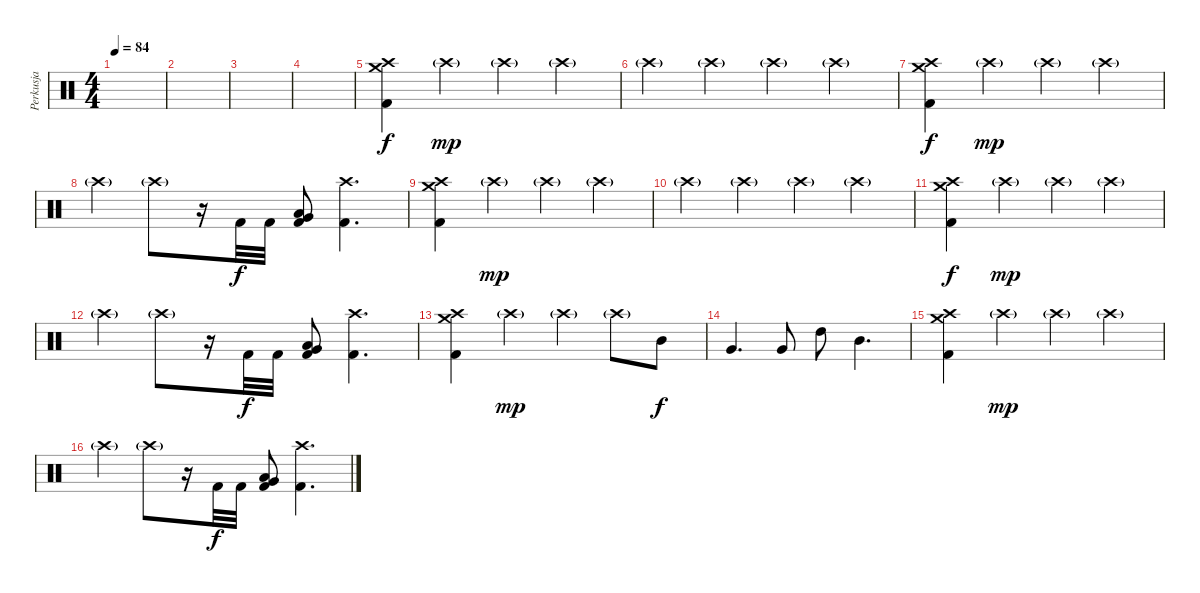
\track ("Perkusja" "Perkusja") {instrument percussion}
\staff {score}
\articulation defaults
\ts (4 4)
\tempo 84
\clef neutral
\ks c
|
|
|
|
("Kick (hit) 2" "Crash medium (hit)" "Crash high (hit)").4 "Crash high (hit)"{g}.4{dy mp} "Crash high (hit)"{g}.4 "Crash high (hit)"{g}.4 |
"Crash high (hit)"{g}.4 "Crash high (hit)"{g}.4 "Crash high (hit)"{g}.4 "Crash high (hit)"{g}.4 |
("Kick (hit) 2" "Crash medium (hit)" "Crash high (hit)").4{dy f} "Crash high (hit)"{g}.4{dy mp} "Crash high (hit)"{g}.4 "Crash high (hit)"{g}.4 |
"Crash high (hit)"{g}.4 "Crash high (hit)"{g}.8 r.16 "Kick (hit) 2".32{dy f} "Kick (hit) 2".32 ("Kick (hit) 2" "Very Low Tom (hit)" "Low Tom (hit)").8 ("Kick (hit) 2" "Crash high (hit)").4{d} |
("Kick (hit) 2" "Crash medium (hit)" "Crash high (hit)").4 "Crash high (hit)"{g}.4{dy mp} "Crash high (hit)"{g}.4 "Crash high (hit)"{g}.4 |
"Crash high (hit)"{g}.4 "Crash high (hit)"{g}.4 "Crash high (hit)"{g}.4 "Crash high (hit)"{g}.4 |
("Kick (hit) 2" "Crash medium (hit)" "Crash high (hit)").4{dy f} "Crash high (hit)"{g}.4{dy mp} "Crash high (hit)"{g}.4 "Crash high (hit)"{g}.4 |
"Crash high (hit)"{g}.4 "Crash high (hit)"{g}.8 r.16 "Kick (hit) 2".32{dy f} "Kick (hit) 2".32 ("Kick (hit) 2" "Very Low Tom (hit)" "Low Tom (hit)").8 ("Kick (hit) 2" "Crash high (hit)").4{d} |
("Kick (hit) 2" "Crash medium (hit)" "Crash high (hit)").4 "Crash high (hit)"{g}.4{dy mp} "Crash high (hit)"{g}.4 "Crash high (hit)"{g}.8 "Mid Tom (hit)".8{dy f} |
"Very Low Tom (hit)".4{d} "Very Low Tom (hit)".8 "High Tom (hit)".8 "Mid Tom (hit)".4{d} |
("Kick (hit) 2" "Crash medium (hit)" "Crash high (hit)").4 "Crash high (hit)"{g}.4{dy mp} "Crash high (hit)"{g}.4 "Crash high (hit)"{g}.4 |
"Crash high (hit)"{g}.4 "Crash high (hit)"{g}.8 r.16 "Kick (hit) 2".32{dy f} "Kick (hit) 2".32 ("Kick (hit) 2" "Very Low Tom (hit)" "Low Tom (hit)").8 ("Kick (hit) 2" "Crash high (hit)").4{d}
